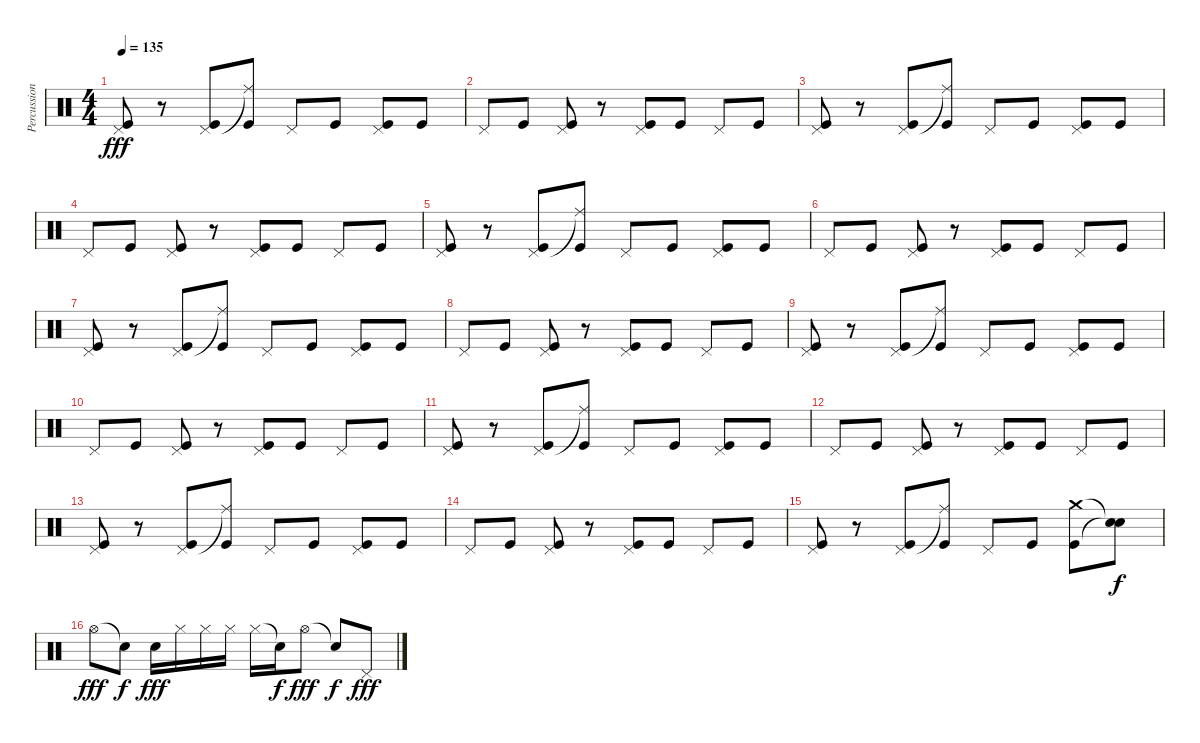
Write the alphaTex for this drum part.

\track ("Percussions" "Percussion") {instrument percussion}
\staff {score}
\articulation defaults
\ts (4 4)
\tempo 135
\clef neutral
\ks c
("Pedal Hi-Hat (hit)" "Kick (hit)").8{dy fff} r.8 ("Pedal Hi-Hat (hit)" "Kick (hit)").8 ("Ride (middle)"{t} "Kick (hit)").8 "Pedal Hi-Hat (hit)".8 "Kick (hit)".8 ("Pedal Hi-Hat (hit)" "Kick (hit)").8 "Kick (hit)".8 |
"Pedal Hi-Hat (hit)".8 "Kick (hit)".8 ("Pedal Hi-Hat (hit)" "Kick (hit)").8 r.8 ("Pedal Hi-Hat (hit)" "Kick (hit)").8 "Kick (hit)".8 "Pedal Hi-Hat (hit)".8 "Kick (hit)".8 |
("Pedal Hi-Hat (hit)" "Kick (hit)").8 r.8 ("Pedal Hi-Hat (hit)" "Kick (hit)").8 ("Ride (middle)"{t} "Kick (hit)").8 "Pedal Hi-Hat (hit)".8 "Kick (hit)".8 ("Pedal Hi-Hat (hit)" "Kick (hit)").8 "Kick (hit)".8 |
"Pedal Hi-Hat (hit)".8 "Kick (hit)".8 ("Pedal Hi-Hat (hit)" "Kick (hit)").8 r.8 ("Pedal Hi-Hat (hit)" "Kick (hit)").8 "Kick (hit)".8 "Pedal Hi-Hat (hit)".8 "Kick (hit)".8 |
("Pedal Hi-Hat (hit)" "Kick (hit)").8 r.8 ("Pedal Hi-Hat (hit)" "Kick (hit)").8 ("Ride (middle)"{t} "Kick (hit)").8 "Pedal Hi-Hat (hit)".8 "Kick (hit)".8 ("Pedal Hi-Hat (hit)" "Kick (hit)").8 "Kick (hit)".8 |
"Pedal Hi-Hat (hit)".8 "Kick (hit)".8 ("Pedal Hi-Hat (hit)" "Kick (hit)").8 r.8 ("Pedal Hi-Hat (hit)" "Kick (hit)").8 "Kick (hit)".8 "Pedal Hi-Hat (hit)".8 "Kick (hit)".8 |
("Pedal Hi-Hat (hit)" "Kick (hit)").8 r.8 ("Pedal Hi-Hat (hit)" "Kick (hit)").8 ("Ride (middle)"{t} "Kick (hit)").8 "Pedal Hi-Hat (hit)".8 "Kick (hit)".8 ("Pedal Hi-Hat (hit)" "Kick (hit)").8 "Kick (hit)".8 |
"Pedal Hi-Hat (hit)".8 "Kick (hit)".8 ("Pedal Hi-Hat (hit)" "Kick (hit)").8 r.8 ("Pedal Hi-Hat (hit)" "Kick (hit)").8 "Kick (hit)".8 "Pedal Hi-Hat (hit)".8 "Kick (hit)".8 |
("Pedal Hi-Hat (hit)" "Kick (hit)").8 r.8 ("Pedal Hi-Hat (hit)" "Kick (hit)").8 ("Ride (middle)"{t} "Kick (hit)").8 "Pedal Hi-Hat (hit)".8 "Kick (hit)".8 ("Pedal Hi-Hat (hit)" "Kick (hit)").8 "Kick (hit)".8 |
"Pedal Hi-Hat (hit)".8 "Kick (hit)".8 ("Pedal Hi-Hat (hit)" "Kick (hit)").8 r.8 ("Pedal Hi-Hat (hit)" "Kick (hit)").8 "Kick (hit)".8 "Pedal Hi-Hat (hit)".8 "Kick (hit)".8 |
("Pedal Hi-Hat (hit)" "Kick (hit)").8 r.8 ("Pedal Hi-Hat (hit)" "Kick (hit)").8 ("Ride (middle)"{t} "Kick (hit)").8 "Pedal Hi-Hat (hit)".8 "Kick (hit)".8 ("Pedal Hi-Hat (hit)" "Kick (hit)").8 "Kick (hit)".8 |
"Pedal Hi-Hat (hit)".8 "Kick (hit)".8 ("Pedal Hi-Hat (hit)" "Kick (hit)").8 r.8 ("Pedal Hi-Hat (hit)" "Kick (hit)").8 "Kick (hit)".8 "Pedal Hi-Hat (hit)".8 "Kick (hit)".8 |
("Pedal Hi-Hat (hit)" "Kick (hit)").8 r.8 ("Pedal Hi-Hat (hit)" "Kick (hit)").8 ("Ride (middle)"{t} "Kick (hit)").8 "Pedal Hi-Hat (hit)".8 "Kick (hit)".8 ("Pedal Hi-Hat (hit)" "Kick (hit)").8 "Kick (hit)".8 |
"Pedal Hi-Hat (hit)".8 "Kick (hit)".8 ("Pedal Hi-Hat (hit)" "Kick (hit)").8 r.8 ("Pedal Hi-Hat (hit)" "Kick (hit)").8 "Kick (hit)".8 "Pedal Hi-Hat (hit)".8 "Kick (hit)".8 |
("Pedal Hi-Hat (hit)" "Kick (hit)").8 r.8 ("Pedal Hi-Hat (hit)" "Kick (hit)").8 ("Ride (middle)"{t} "Kick (hit)").8 "Pedal Hi-Hat (hit)".8 "Kick (hit)".8 ("Crash medium (hit)" "Kick (hit)").8 ("Snare (hit)"{t} "Snare (hit)"{t}).8{dy f} |
"Hi-Hat (open)".8{dy fff} "Snare (hit)"{t}.8{dy f} "Electric Snare (hit)".16{dy fff} "Hi-Hat (closed)".16 "Hi-Hat (closed)".16 "Hi-Hat (closed)".16 "Hi-Hat (closed)".16 "Snare (hit)"{t}.16{dy f} "Hi-Hat (open)".8{dy fff} "Snare (hit)"{t}.8{dy f} "Pedal Hi-Hat (hit)".8{dy fff}
